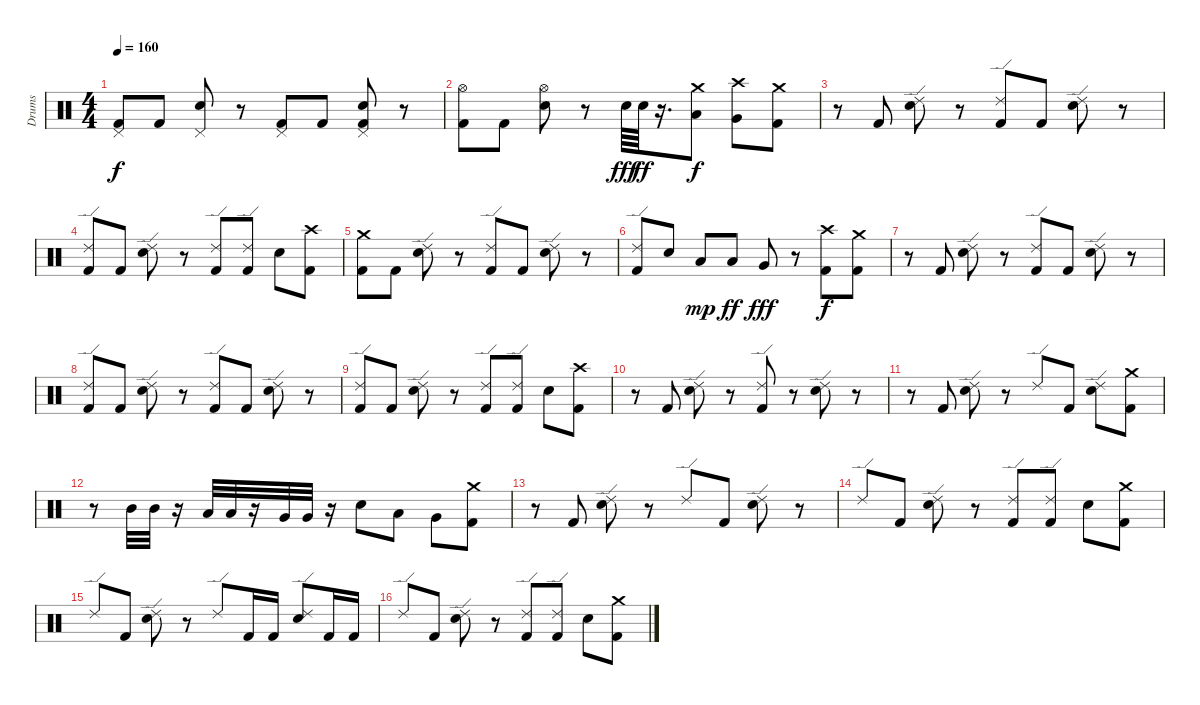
\track ("Drums" "Drums") {instrument percussion}
\staff {score}
\articulation defaults
\ts (4 4)
\tempo 160
\clef neutral
\ks c
("Pedal Hi-Hat (hit)" "Kick (hit) 2").8{dy f} "Kick (hit) 2".8 ("Pedal Hi-Hat (hit)" "Snare (hit) 2").8 r.8 ("Pedal Hi-Hat (hit)" "Kick (hit) 2").8 "Kick (hit) 2".8 ("Pedal Hi-Hat (hit)" "Snare (hit) 2" "Kick (hit) 2").8 r.8 |
("Hi-Hat (open)" "Kick (hit) 2").8 "Kick (hit) 2".8 ("Hi-Hat (open)" "Snare (hit) 2").8 r.8 "Snare (hit) 2".64{dy fff} "Snare (hit) 2".64{dy ff} r.16{d} ("Crash medium (hit)" "Low Tom (hit)").8{dy f} ("Crash high (hit)" "Very Low Tom (hit)").8 ("Crash medium (hit)" "Kick (hit) 2").8 |
r.8 "Kick (hit) 2".8 ("Ride (edge) 2" "Snare (hit) 2").8 r.8 ("Ride (edge) 2" "Kick (hit) 2").8 "Kick (hit) 2".8 ("Ride (edge) 2" "Snare (hit) 2").8 r.8 |
("Ride (edge) 2" "Kick (hit) 2").8 "Kick (hit) 2".8 ("Ride (edge) 2" "Snare (hit) 2").8 r.8 ("Ride (edge) 2" "Kick (hit) 2").8 ("Ride (edge) 2" "Kick (hit) 2").8 "Snare (hit) 2".8 ("Crash high (hit)" "Kick (hit) 2").8 |
("Crash medium (hit)" "Kick (hit) 2").8 "Kick (hit) 2".8 ("Ride (edge) 2" "Snare (hit) 2").8 r.8 ("Ride (edge) 2" "Kick (hit) 2").8 "Kick (hit) 2".8 ("Ride (edge) 2" "Snare (hit) 2").8 r.8 |
("Ride (edge) 2" "Kick (hit) 2").8 "Snare (hit) 2".8 "Low Tom (hit)".8{dy mp} "Low Tom (hit)".8{dy ff} "Very Low Tom (hit)".8{dy fff} r.8 ("Crash high (hit)" "Kick (hit) 2").8{dy f} ("Crash medium (hit)" "Kick (hit) 2").8 |
r.8 "Kick (hit) 2".8 ("Ride (edge) 2" "Snare (hit) 2").8 r.8 ("Ride (edge) 2" "Kick (hit) 2").8 "Kick (hit) 2".8 ("Ride (edge) 2" "Snare (hit) 2").8 r.8 |
("Ride (edge) 2" "Kick (hit) 2").8 "Kick (hit) 2".8 ("Ride (edge) 2" "Snare (hit) 2").8 r.8 ("Ride (edge) 2" "Kick (hit) 2").8 "Kick (hit) 2".8 ("Ride (edge) 2" "Snare (hit) 2").8 r.8 |
("Ride (edge) 2" "Kick (hit) 2").8 "Kick (hit) 2".8 ("Ride (edge) 2" "Snare (hit) 2").8 r.8 ("Ride (edge) 2" "Kick (hit) 2").8 ("Ride (edge) 2" "Kick (hit) 2").8 "Snare (hit) 2".8 ("Crash high (hit)" "Kick (hit) 2").8 |
r.8 "Kick (hit) 2".8 ("Ride (edge) 2" "Snare (hit) 2").8 r.8 ("Ride (edge) 2" "Kick (hit) 2").8 r.8 ("Ride (edge) 2" "Snare (hit) 2").8 r.8 |
r.8 "Kick (hit) 2".8 ("Ride (edge) 2" "Snare (hit) 2").8 r.8 "Ride (edge) 2".8 "Kick (hit) 2".8 ("Ride (edge) 2" "Snare (hit) 2").8 ("Crash medium (hit)" "Kick (hit) 2").8 |
r.8 "Mid Tom (hit)".32 "Mid Tom (hit)".32 r.16 "Low Tom (hit)".32 "Low Tom (hit)".32 r.16 "Very Low Tom (hit)".32 "Very Low Tom (hit)".32 r.16 "Snare (hit) 2".8 "Low Tom (hit)".8 "Very Low Tom (hit)".8 ("Crash medium (hit)" "Kick (hit) 2").8 |
r.8 "Kick (hit) 2".8 ("Ride (edge) 2" "Snare (hit) 2").8 r.8 "Ride (edge) 2".8 "Kick (hit) 2".8 ("Ride (edge) 2" "Snare (hit) 2").8 r.8 |
"Ride (edge) 2".8 "Kick (hit) 2".8 ("Ride (edge) 2" "Snare (hit) 2").8 r.8 ("Ride (edge) 2" "Kick (hit) 2").8 ("Ride (edge) 2" "Kick (hit) 2").8 "Snare (hit) 2".8 ("Crash medium (hit)" "Kick (hit) 2").8 |
"Ride (edge) 2".8 "Kick (hit) 2".8 ("Ride (edge) 2" "Snare (hit) 2").8 r.8 "Ride (edge) 2".8 "Kick (hit) 2".16 "Kick (hit) 2".16 ("Ride (edge) 2" "Snare (hit) 2").8 "Kick (hit) 2".16 "Kick (hit) 2".16 |
"Ride (edge) 2".8 "Kick (hit) 2".8 ("Ride (edge) 2" "Snare (hit) 2").8 r.8 ("Ride (edge) 2" "Kick (hit) 2").8 ("Ride (edge) 2" "Kick (hit) 2").8 "Snare (hit) 2".8 ("Crash medium (hit)" "Kick (hit) 2").8
